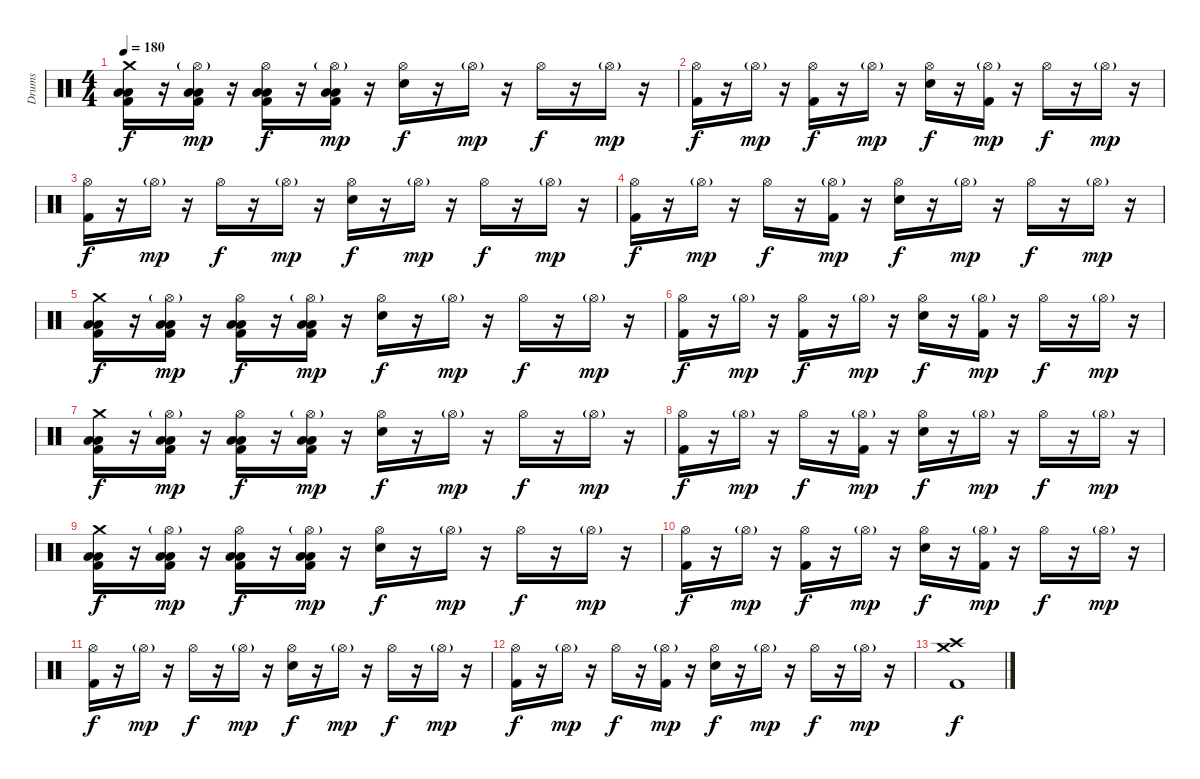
\track ("Drums" "Drums") {instrument percussion}
\staff {score}
\articulation defaults
\ts (4 4)
\tempo 180
\clef neutral
\ks c
("Crash medium (hit)" "Kick (hit) 2" "Low Floor Tom (hit)" "Low Tom (hit)").16{dy f} r.16 ("Hi-Hat (open)"{g} "Kick (hit) 2" "Low Floor Tom (hit)" "Low Tom (hit)").16{dy mp} r.16 ("Hi-Hat (open)" "Kick (hit) 2" "Low Floor Tom (hit)" "Low Tom (hit)").16{dy f} r.16 ("Hi-Hat (open)"{g} "Kick (hit) 2" "Low Floor Tom (hit)" "Low Tom (hit)").16{dy mp} r.16 ("Hi-Hat (open)" "Electric Snare (hit)").16{dy f} r.16 "Hi-Hat (open)"{g}.16{dy mp} r.16 "Hi-Hat (open)".16{dy f} r.16 "Hi-Hat (open)"{g}.16{dy mp} r.16 |
("Hi-Hat (open)" "Kick (hit) 2").16{dy f} r.16 "Hi-Hat (open)"{g}.16{dy mp} r.16 ("Hi-Hat (open)" "Kick (hit) 2").16{dy f} r.16 "Hi-Hat (open)"{g}.16{dy mp} r.16 ("Hi-Hat (open)" "Electric Snare (hit)").16{dy f} r.16 ("Hi-Hat (open)"{g} "Kick (hit) 2").16{dy mp} r.16 "Hi-Hat (open)".16{dy f} r.16 "Hi-Hat (open)"{g}.16{dy mp} r.16 |
("Hi-Hat (open)" "Kick (hit) 2").16{dy f} r.16 "Hi-Hat (open)"{g}.16{dy mp} r.16 "Hi-Hat (open)".16{dy f} r.16 "Hi-Hat (open)"{g}.16{dy mp} r.16 ("Hi-Hat (open)" "Electric Snare (hit)").16{dy f} r.16 "Hi-Hat (open)"{g}.16{dy mp} r.16 "Hi-Hat (open)".16{dy f} r.16 "Hi-Hat (open)"{g}.16{dy mp} r.16 |
("Hi-Hat (open)" "Kick (hit) 2").16{dy f} r.16 "Hi-Hat (open)"{g}.16{dy mp} r.16 "Hi-Hat (open)".16{dy f} r.16 ("Hi-Hat (open)"{g} "Kick (hit) 2").16{dy mp} r.16 ("Hi-Hat (open)" "Electric Snare (hit)").16{dy f} r.16 "Hi-Hat (open)"{g}.16{dy mp} r.16 "Hi-Hat (open)".16{dy f} r.16 "Hi-Hat (open)"{g}.16{dy mp} r.16 |
("Crash medium (hit)" "Kick (hit) 2" "Low Floor Tom (hit)" "Low Tom (hit)").16{dy f} r.16 ("Hi-Hat (open)"{g} "Kick (hit) 2" "Low Floor Tom (hit)" "Low Tom (hit)").16{dy mp} r.16 ("Hi-Hat (open)" "Kick (hit) 2" "Low Floor Tom (hit)" "Low Tom (hit)").16{dy f} r.16 ("Hi-Hat (open)"{g} "Kick (hit) 2" "Low Floor Tom (hit)" "Low Tom (hit)").16{dy mp} r.16 ("Hi-Hat (open)" "Electric Snare (hit)").16{dy f} r.16 "Hi-Hat (open)"{g}.16{dy mp} r.16 "Hi-Hat (open)".16{dy f} r.16 "Hi-Hat (open)"{g}.16{dy mp} r.16 |
("Hi-Hat (open)" "Kick (hit) 2").16{dy f} r.16 "Hi-Hat (open)"{g}.16{dy mp} r.16 ("Hi-Hat (open)" "Kick (hit) 2").16{dy f} r.16 "Hi-Hat (open)"{g}.16{dy mp} r.16 ("Hi-Hat (open)" "Electric Snare (hit)").16{dy f} r.16 ("Hi-Hat (open)"{g} "Kick (hit) 2").16{dy mp} r.16 "Hi-Hat (open)".16{dy f} r.16 "Hi-Hat (open)"{g}.16{dy mp} r.16 |
("Crash medium (hit)" "Kick (hit) 2" "Low Floor Tom (hit)" "Low Tom (hit)").16{dy f} r.16 ("Hi-Hat (open)"{g} "Kick (hit) 2" "Low Floor Tom (hit)" "Low Tom (hit)").16{dy mp} r.16 ("Hi-Hat (open)" "Kick (hit) 2" "Low Floor Tom (hit)" "Low Tom (hit)").16{dy f} r.16 ("Hi-Hat (open)"{g} "Kick (hit) 2" "Low Floor Tom (hit)" "Low Tom (hit)").16{dy mp} r.16 ("Hi-Hat (open)" "Electric Snare (hit)").16{dy f} r.16 "Hi-Hat (open)"{g}.16{dy mp} r.16 "Hi-Hat (open)".16{dy f} r.16 "Hi-Hat (open)"{g}.16{dy mp} r.16 |
("Hi-Hat (open)" "Kick (hit) 2").16{dy f} r.16 "Hi-Hat (open)"{g}.16{dy mp} r.16 "Hi-Hat (open)".16{dy f} r.16 ("Hi-Hat (open)"{g} "Kick (hit) 2").16{dy mp} r.16 ("Hi-Hat (open)" "Electric Snare (hit)").16{dy f} r.16 "Hi-Hat (open)"{g}.16{dy mp} r.16 "Hi-Hat (open)".16{dy f} r.16 "Hi-Hat (open)"{g}.16{dy mp} r.16 |
("Crash medium (hit)" "Kick (hit) 2" "Low Floor Tom (hit)" "Low Tom (hit)").16{dy f} r.16 ("Hi-Hat (open)"{g} "Kick (hit) 2" "Low Floor Tom (hit)" "Low Tom (hit)").16{dy mp} r.16 ("Hi-Hat (open)" "Kick (hit) 2" "Low Floor Tom (hit)" "Low Tom (hit)").16{dy f} r.16 ("Hi-Hat (open)"{g} "Kick (hit) 2" "Low Floor Tom (hit)" "Low Tom (hit)").16{dy mp} r.16 ("Hi-Hat (open)" "Electric Snare (hit)").16{dy f} r.16 "Hi-Hat (open)"{g}.16{dy mp} r.16 "Hi-Hat (open)".16{dy f} r.16 "Hi-Hat (open)"{g}.16{dy mp} r.16 |
("Hi-Hat (open)" "Kick (hit) 2").16{dy f} r.16 "Hi-Hat (open)"{g}.16{dy mp} r.16 ("Hi-Hat (open)" "Kick (hit) 2").16{dy f} r.16 "Hi-Hat (open)"{g}.16{dy mp} r.16 ("Hi-Hat (open)" "Electric Snare (hit)").16{dy f} r.16 ("Hi-Hat (open)"{g} "Kick (hit) 2").16{dy mp} r.16 "Hi-Hat (open)".16{dy f} r.16 "Hi-Hat (open)"{g}.16{dy mp} r.16 |
("Hi-Hat (open)" "Kick (hit) 2").16{dy f} r.16 "Hi-Hat (open)"{g}.16{dy mp} r.16 "Hi-Hat (open)".16{dy f} r.16 "Hi-Hat (open)"{g}.16{dy mp} r.16 ("Hi-Hat (open)" "Electric Snare (hit)").16{dy f} r.16 "Hi-Hat (open)"{g}.16{dy mp} r.16 "Hi-Hat (open)".16{dy f} r.16 "Hi-Hat (open)"{g}.16{dy mp} r.16 |
("Hi-Hat (open)" "Kick (hit) 2").16{dy f} r.16 "Hi-Hat (open)"{g}.16{dy mp} r.16 "Hi-Hat (open)".16{dy f} r.16 ("Hi-Hat (open)"{g} "Kick (hit) 2").16{dy mp} r.16 ("Hi-Hat (open)" "Electric Snare (hit)").16{dy f} r.16 "Hi-Hat (open)"{g}.16{dy mp} r.16 "Hi-Hat (open)".16{dy f} r.16 "Hi-Hat (open)"{g}.16{dy mp} r.16 |
("Kick (hit) 2" "Crash high (hit)" "Crash medium (hit)").1{dy f}
